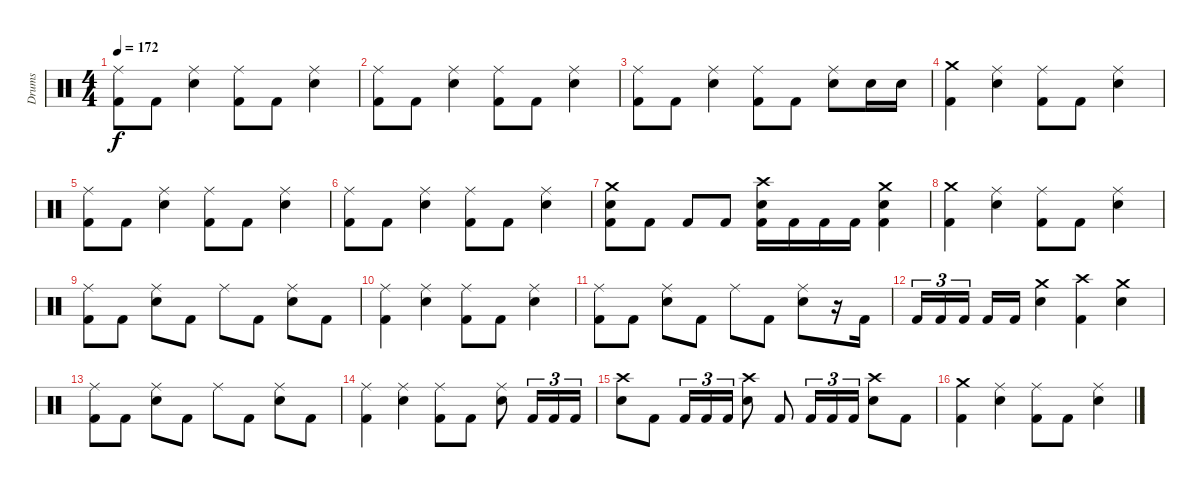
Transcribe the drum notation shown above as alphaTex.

\track ("Drums" "Drums") {instrument percussion}
\staff {score}
\articulation defaults
\ts (4 4)
\tempo 172
\clef neutral
\ks c
("Ride (middle)" "Kick (hit) 2").8{dy f} "Kick (hit) 2".8 ("Ride (middle)" "Electric Snare (hit)").4 ("Ride (middle)" "Kick (hit) 2").8 "Kick (hit) 2".8 ("Ride (middle)" "Electric Snare (hit)").4 |
("Ride (middle)" "Kick (hit) 2").8 "Kick (hit) 2".8 ("Ride (middle)" "Electric Snare (hit)").4 ("Ride (middle)" "Kick (hit) 2").8 "Kick (hit) 2".8 ("Ride (middle)" "Electric Snare (hit)").4 |
("Ride (middle)" "Kick (hit) 2").8 "Kick (hit) 2".8 ("Ride (middle)" "Electric Snare (hit)").4 ("Ride (middle)" "Kick (hit) 2").8 "Kick (hit) 2".8 ("Ride (middle)" "Electric Snare (hit)").8 "Electric Snare (hit)".16 "Electric Snare (hit)".16 |
("Crash medium (hit)" "Kick (hit) 2").4 ("Ride (middle)" "Electric Snare (hit)").4 ("Ride (middle)" "Kick (hit) 2").8 "Kick (hit) 2".8 ("Ride (middle)" "Electric Snare (hit)").4 |
("Ride (middle)" "Kick (hit) 2").8 "Kick (hit) 2".8 ("Ride (middle)" "Electric Snare (hit)").4 ("Ride (middle)" "Kick (hit) 2").8 "Kick (hit) 2".8 ("Ride (middle)" "Electric Snare (hit)").4 |
("Ride (middle)" "Kick (hit) 2").8 "Kick (hit) 2".8 ("Ride (middle)" "Electric Snare (hit)").4 ("Ride (middle)" "Kick (hit) 2").8 "Kick (hit) 2".8 ("Ride (middle)" "Electric Snare (hit)").4 |
("Crash medium (hit)" "Electric Snare (hit)" "Kick (hit) 2").8 "Kick (hit) 2".8 "Kick (hit) 2".8 "Kick (hit) 2".8 ("Crash high (hit)" "Electric Snare (hit)" "Kick (hit) 2").16 "Kick (hit) 2".16 "Kick (hit) 2".16 "Kick (hit) 2".16 ("Crash medium (hit)" "Electric Snare (hit)" "Kick (hit) 2").4 |
\section ("" "")
("Crash medium (hit)" "Kick (hit) 2").4 ("Ride (middle)" "Electric Snare (hit)").4 ("Ride (middle)" "Kick (hit) 2").8 "Kick (hit) 2".8 ("Ride (middle)" "Electric Snare (hit)").4 |
("Ride (middle)" "Kick (hit) 2").8 "Kick (hit) 2".8 ("Ride (middle)" "Electric Snare (hit)").8 "Kick (hit) 2".8 "Ride (middle)".8 "Kick (hit) 2".8 ("Ride (middle)" "Electric Snare (hit)").8 "Kick (hit) 2".8 |
("Ride (middle)" "Kick (hit) 2").4 ("Ride (middle)" "Electric Snare (hit)").4 ("Ride (middle)" "Kick (hit) 2").8 "Kick (hit) 2".8 ("Ride (middle)" "Electric Snare (hit)").4 |
("Ride (middle)" "Kick (hit) 2").8 "Kick (hit) 2".8 ("Ride (middle)" "Electric Snare (hit)").8 "Kick (hit) 2".8 "Ride (middle)".8 "Kick (hit) 2".8 ("Ride (middle)" "Electric Snare (hit)").8 r.16 "Kick (hit) 2".16 |
"Kick (hit) 2".16{tu (3 2)} "Kick (hit) 2".16{tu (3 2)} "Kick (hit) 2".16{tu (3 2)} "Kick (hit) 2".16 "Kick (hit) 2".16 ("Crash medium (hit)" "Electric Snare (hit)").4 ("Crash high (hit)" "Kick (hit) 2").4 ("Crash medium (hit)" "Electric Snare (hit)").4 |
("Ride (middle)" "Kick (hit) 2").8 "Kick (hit) 2".8 ("Ride (middle)" "Electric Snare (hit)").8 "Kick (hit) 2".8 "Ride (middle)".8 "Kick (hit) 2".8 ("Ride (middle)" "Electric Snare (hit)").8 "Kick (hit) 2".8 |
("Ride (middle)" "Kick (hit) 2").4 ("Ride (middle)" "Electric Snare (hit)").4 ("Ride (middle)" "Kick (hit) 2").8 "Kick (hit) 2".8 ("Ride (middle)" "Electric Snare (hit)").8 "Kick (hit) 2".16{tu (3 2)} "Kick (hit) 2".16{tu (3 2)} "Kick (hit) 2".16{tu (3 2)} |
("Crash high (hit)" "Electric Snare (hit)").8 "Kick (hit) 2".8 "Kick (hit) 2".16{tu (3 2)} "Kick (hit) 2".16{tu (3 2)} "Kick (hit) 2".16{tu (3 2)} ("Crash high (hit)" "Electric Snare (hit)").8 "Kick (hit) 2".8 "Kick (hit) 2".16{tu (3 2)} "Kick (hit) 2".16{tu (3 2)} "Kick (hit) 2".16{tu (3 2)} ("Crash high (hit)" "Electric Snare (hit)").8 "Kick (hit) 2".8 |
\section ("" "")
("Crash medium (hit)" "Kick (hit) 2").4 ("Ride (middle)" "Electric Snare (hit)").4 ("Ride (middle)" "Kick (hit) 2").8 "Kick (hit) 2".8 ("Ride (middle)" "Electric Snare (hit)").4
